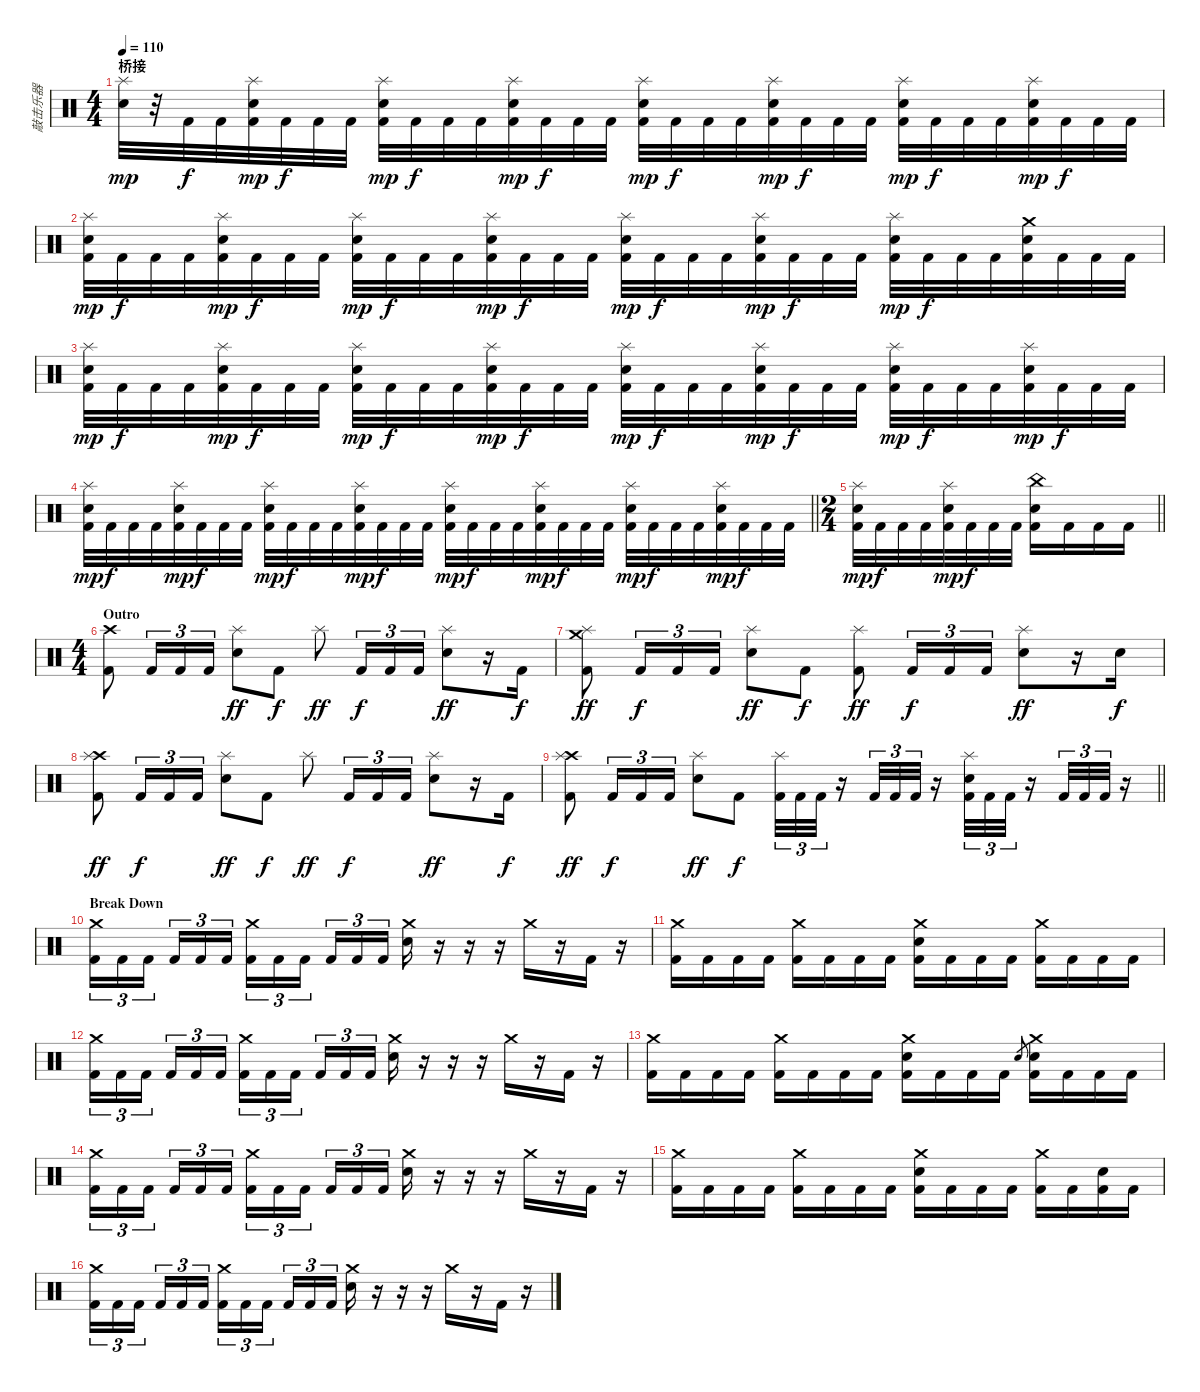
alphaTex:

\track ("敲击乐器" "敲击乐器") {instrument percussion}
\staff {score}
\articulation defaults
\ts (4 4)
\section ("" "桥接")
\tempo 110
\clef neutral
\ks c
("Splash (hit)" "Snare (hit) 2").32{dy mp} r.32 "Kick (hit) 2".32{dy f} "Kick (hit) 2".32 ("Splash (hit)" "Snare (hit) 2" "Kick (hit) 2").32{dy mp} "Kick (hit) 2".32{dy f} "Kick (hit) 2".32 "Kick (hit) 2".32 ("Splash (hit)" "Snare (hit) 2" "Kick (hit) 2").32{dy mp} "Kick (hit) 2".32{dy f} "Kick (hit) 2".32 "Kick (hit) 2".32 ("Splash (hit)" "Snare (hit) 2" "Kick (hit) 2").32{dy mp} "Kick (hit) 2".32{dy f} "Kick (hit) 2".32 "Kick (hit) 2".32 ("Splash (hit)" "Snare (hit) 2" "Kick (hit) 2").32{dy mp} "Kick (hit) 2".32{dy f} "Kick (hit) 2".32 "Kick (hit) 2".32 ("Splash (hit)" "Snare (hit) 2" "Kick (hit) 2").32{dy mp} "Kick (hit) 2".32{dy f} "Kick (hit) 2".32 "Kick (hit) 2".32 ("Splash (hit)" "Snare (hit) 2" "Kick (hit) 2").32{dy mp} "Kick (hit) 2".32{dy f} "Kick (hit) 2".32 "Kick (hit) 2".32 ("Splash (hit)" "Snare (hit) 2" "Kick (hit) 2").32{dy mp} "Kick (hit) 2".32{dy f} "Kick (hit) 2".32 "Kick (hit) 2".32 |
("Splash (hit)" "Snare (hit) 2" "Kick (hit) 2").32{dy mp} "Kick (hit) 2".32{dy f} "Kick (hit) 2".32 "Kick (hit) 2".32 ("Splash (hit)" "Snare (hit) 2" "Kick (hit) 2").32{dy mp} "Kick (hit) 2".32{dy f} "Kick (hit) 2".32 "Kick (hit) 2".32 ("Splash (hit)" "Snare (hit) 2" "Kick (hit) 2").32{dy mp} "Kick (hit) 2".32{dy f} "Kick (hit) 2".32 "Kick (hit) 2".32 ("Splash (hit)" "Snare (hit) 2" "Kick (hit) 2").32{dy mp} "Kick (hit) 2".32{dy f} "Kick (hit) 2".32 "Kick (hit) 2".32 ("Splash (hit)" "Snare (hit) 2" "Kick (hit) 2").32{dy mp} "Kick (hit) 2".32{dy f} "Kick (hit) 2".32 "Kick (hit) 2".32 ("Splash (hit)" "Snare (hit) 2" "Kick (hit) 2").32{dy mp} "Kick (hit) 2".32{dy f} "Kick (hit) 2".32 "Kick (hit) 2".32 ("Splash (hit)" "Snare (hit) 2" "Kick (hit) 2").32{dy mp} "Kick (hit) 2".32{dy f} "Kick (hit) 2".32 "Kick (hit) 2".32 ("Crash medium (hit)" "Snare (hit) 2" "Kick (hit) 2").32 "Kick (hit) 2".32 "Kick (hit) 2".32 "Kick (hit) 2".32 |
("Splash (hit)" "Snare (hit) 2" "Kick (hit) 2").32{dy mp} "Kick (hit) 2".32{dy f} "Kick (hit) 2".32 "Kick (hit) 2".32 ("Splash (hit)" "Snare (hit) 2" "Kick (hit) 2").32{dy mp} "Kick (hit) 2".32{dy f} "Kick (hit) 2".32 "Kick (hit) 2".32 ("Splash (hit)" "Snare (hit) 2" "Kick (hit) 2").32{dy mp} "Kick (hit) 2".32{dy f} "Kick (hit) 2".32 "Kick (hit) 2".32 ("Splash (hit)" "Snare (hit) 2" "Kick (hit) 2").32{dy mp} "Kick (hit) 2".32{dy f} "Kick (hit) 2".32 "Kick (hit) 2".32 ("Splash (hit)" "Snare (hit) 2" "Kick (hit) 2").32{dy mp} "Kick (hit) 2".32{dy f} "Kick (hit) 2".32 "Kick (hit) 2".32 ("Splash (hit)" "Snare (hit) 2" "Kick (hit) 2").32{dy mp} "Kick (hit) 2".32{dy f} "Kick (hit) 2".32 "Kick (hit) 2".32 ("Splash (hit)" "Snare (hit) 2" "Kick (hit) 2").32{dy mp} "Kick (hit) 2".32{dy f} "Kick (hit) 2".32 "Kick (hit) 2".32 ("Splash (hit)" "Snare (hit) 2" "Kick (hit) 2").32{dy mp} "Kick (hit) 2".32{dy f} "Kick (hit) 2".32 "Kick (hit) 2".32 |
\barLineRight lightlight
("Splash (hit)" "Snare (hit) 2" "Kick (hit) 2").32{dy mp} "Kick (hit) 2".32{dy f} "Kick (hit) 2".32 "Kick (hit) 2".32 ("Splash (hit)" "Snare (hit) 2" "Kick (hit) 2").32{dy mp} "Kick (hit) 2".32{dy f} "Kick (hit) 2".32 "Kick (hit) 2".32 ("Splash (hit)" "Snare (hit) 2" "Kick (hit) 2").32{dy mp} "Kick (hit) 2".32{dy f} "Kick (hit) 2".32 "Kick (hit) 2".32 ("Splash (hit)" "Snare (hit) 2" "Kick (hit) 2").32{dy mp} "Kick (hit) 2".32{dy f} "Kick (hit) 2".32 "Kick (hit) 2".32 ("Splash (hit)" "Snare (hit) 2" "Kick (hit) 2").32{dy mp} "Kick (hit) 2".32{dy f} "Kick (hit) 2".32 "Kick (hit) 2".32 ("Splash (hit)" "Snare (hit) 2" "Kick (hit) 2").32{dy mp} "Kick (hit) 2".32{dy f} "Kick (hit) 2".32 "Kick (hit) 2".32 ("Splash (hit)" "Snare (hit) 2" "Kick (hit) 2").32{dy mp} "Kick (hit) 2".32{dy f} "Kick (hit) 2".32 "Kick (hit) 2".32 ("Splash (hit)" "Snare (hit) 2" "Kick (hit) 2").32{dy mp} "Kick (hit) 2".32{dy f} "Kick (hit) 2".32 "Kick (hit) 2".32 |
\ts (2 4)
\barLineRight lightlight
("Splash (hit)" "Snare (hit) 2" "Kick (hit) 2").32{dy mp} "Kick (hit) 2".32{dy f} "Kick (hit) 2".32 "Kick (hit) 2".32 ("Splash (hit)" "Snare (hit) 2" "Kick (hit) 2").32{dy mp} "Kick (hit) 2".32{dy f} "Kick (hit) 2".32 "Kick (hit) 2".32 ("China (hit)" "Snare (hit) 2" "Kick (hit) 2").16 "Kick (hit) 2".16 "Kick (hit) 2".16 "Kick (hit) 2".16 |
\ts (4 4)
\section ("" "Outro")
("Crash high (hit)" "Kick (hit) 2").8 "Kick (hit) 2".16{tu (3 2)} "Kick (hit) 2".16{tu (3 2)} "Kick (hit) 2".16{tu (3 2)} ("Splash (hit)" "Snare (hit) 2").8{dy ff} "Kick (hit) 2".8{dy f} "Splash (hit)".8{dy ff} "Kick (hit) 2".16{tu (3 2) dy f} "Kick (hit) 2".16{tu (3 2)} "Kick (hit) 2".16{tu (3 2)} ("Splash (hit)" "Snare (hit) 2").8{dy ff} r.16 "Kick (hit) 2".16{dy f} |
("Crash medium (hit)" "Splash (hit)" "Kick (hit) 2").8{dy ff} "Kick (hit) 2".16{tu (3 2) dy f} "Kick (hit) 2".16{tu (3 2)} "Kick (hit) 2".16{tu (3 2)} ("Splash (hit)" "Snare (hit) 2").8{dy ff} "Kick (hit) 2".8{dy f} ("Splash (hit)" "Kick (hit) 2").8{dy ff} "Kick (hit) 2".16{tu (3 2) dy f} "Kick (hit) 2".16{tu (3 2)} "Kick (hit) 2".16{tu (3 2)} ("Splash (hit)" "Snare (hit) 2").8{dy ff} r.16 "Snare (hit) 2".16{dy f} |
("Crash high (hit)" "Splash (hit)" "Kick (hit) 2").8{dy ff} "Kick (hit) 2".16{tu (3 2) dy f} "Kick (hit) 2".16{tu (3 2)} "Kick (hit) 2".16{tu (3 2)} ("Splash (hit)" "Snare (hit) 2").8{dy ff} "Kick (hit) 2".8{dy f} "Splash (hit)".8{dy ff} "Kick (hit) 2".16{tu (3 2) dy f} "Kick (hit) 2".16{tu (3 2)} "Kick (hit) 2".16{tu (3 2)} ("Splash (hit)" "Snare (hit) 2").8{dy ff} r.16 "Kick (hit) 2".16{dy f} |
\barLineRight lightlight
("Crash high (hit)" "Splash (hit)" "Kick (hit) 2").8{dy ff} "Kick (hit) 2".16{tu (3 2) dy f} "Kick (hit) 2".16{tu (3 2)} "Kick (hit) 2".16{tu (3 2)} ("Splash (hit)" "Snare (hit) 2").8{dy ff} "Kick (hit) 2".8{dy f} ("Splash (hit)" "Kick (hit) 2").32{tu (3 2)} "Kick (hit) 2".32{tu (3 2)} "Kick (hit) 2".32{tu (3 2)} r.16 "Kick (hit) 2".32{tu (3 2)} "Kick (hit) 2".32{tu (3 2)} "Kick (hit) 2".32{tu (3 2)} r.16 ("Splash (hit)" "Snare (hit) 2" "Kick (hit) 2").32{tu (3 2)} "Kick (hit) 2".32{tu (3 2)} "Kick (hit) 2".32{tu (3 2)} r.16 "Kick (hit) 2".32{tu (3 2)} "Kick (hit) 2".32{tu (3 2)} "Kick (hit) 2".32{tu (3 2)} r.16 |
\section ("" "Break Down")
("Crash medium (hit)" "Kick (hit) 2").16{tu (3 2)} "Kick (hit) 2".16{tu (3 2)} "Kick (hit) 2".16{tu (3 2) beam splitsecondary} "Kick (hit) 2".16{tu (3 2)} "Kick (hit) 2".16{tu (3 2)} "Kick (hit) 2".16{tu (3 2)} ("Crash medium (hit)" "Kick (hit) 2").16{tu (3 2)} "Kick (hit) 2".16{tu (3 2)} "Kick (hit) 2".16{tu (3 2) beam splitsecondary} "Kick (hit) 2".16{tu (3 2)} "Kick (hit) 2".16{tu (3 2)} "Kick (hit) 2".16{tu (3 2)} ("Crash medium (hit)" "Snare (hit) 2").16 r.16 r.16 r.16 "Crash medium (hit)".16 r.16 "Kick (hit) 2".16 r.16 |
("Crash medium (hit)" "Kick (hit) 2").16 "Kick (hit) 2".16 "Kick (hit) 2".16 "Kick (hit) 2".16 ("Crash medium (hit)" "Kick (hit) 2").16 "Kick (hit) 2".16 "Kick (hit) 2".16 "Kick (hit) 2".16 ("Crash medium (hit)" "Snare (hit) 2" "Kick (hit) 2").16 "Kick (hit) 2".16 "Kick (hit) 2".16 "Kick (hit) 2".16 ("Crash medium (hit)" "Kick (hit) 2").16 "Kick (hit) 2".16 "Kick (hit) 2".16 "Kick (hit) 2".16 |
("Crash medium (hit)" "Kick (hit) 2").16{tu (3 2)} "Kick (hit) 2".16{tu (3 2)} "Kick (hit) 2".16{tu (3 2) beam splitsecondary} "Kick (hit) 2".16{tu (3 2)} "Kick (hit) 2".16{tu (3 2)} "Kick (hit) 2".16{tu (3 2)} ("Crash medium (hit)" "Kick (hit) 2").16{tu (3 2)} "Kick (hit) 2".16{tu (3 2)} "Kick (hit) 2".16{tu (3 2) beam splitsecondary} "Kick (hit) 2".16{tu (3 2)} "Kick (hit) 2".16{tu (3 2)} "Kick (hit) 2".16{tu (3 2)} ("Crash medium (hit)" "Snare (hit) 2").16 r.16 r.16 r.16 "Crash medium (hit)".16 r.16 "Kick (hit) 2".16 r.16 |
("Crash medium (hit)" "Kick (hit) 2").16 "Kick (hit) 2".16 "Kick (hit) 2".16 "Kick (hit) 2".16 ("Crash medium (hit)" "Kick (hit) 2").16 "Kick (hit) 2".16 "Kick (hit) 2".16 "Kick (hit) 2".16 ("Crash medium (hit)" "Snare (hit) 2" "Kick (hit) 2").16 "Kick (hit) 2".16 "Kick (hit) 2".16 "Kick (hit) 2".16 "Snare (hit) 2".8{gr} ("Crash medium (hit)" "Snare (hit) 2" "Kick (hit) 2").16 "Kick (hit) 2".16 "Kick (hit) 2".16 "Kick (hit) 2".16 |
("Crash medium (hit)" "Kick (hit) 2").16{tu (3 2)} "Kick (hit) 2".16{tu (3 2)} "Kick (hit) 2".16{tu (3 2) beam splitsecondary} "Kick (hit) 2".16{tu (3 2)} "Kick (hit) 2".16{tu (3 2)} "Kick (hit) 2".16{tu (3 2)} ("Crash medium (hit)" "Kick (hit) 2").16{tu (3 2)} "Kick (hit) 2".16{tu (3 2)} "Kick (hit) 2".16{tu (3 2) beam splitsecondary} "Kick (hit) 2".16{tu (3 2)} "Kick (hit) 2".16{tu (3 2)} "Kick (hit) 2".16{tu (3 2)} ("Crash medium (hit)" "Snare (hit) 2").16 r.16 r.16 r.16 "Crash medium (hit)".16 r.16 "Kick (hit) 2".16 r.16 |
("Crash medium (hit)" "Kick (hit) 2").16 "Kick (hit) 2".16 "Kick (hit) 2".16 "Kick (hit) 2".16 ("Crash medium (hit)" "Kick (hit) 2").16 "Kick (hit) 2".16 "Kick (hit) 2".16 "Kick (hit) 2".16 ("Crash medium (hit)" "Snare (hit) 2" "Kick (hit) 2").16 "Kick (hit) 2".16 "Kick (hit) 2".16 "Kick (hit) 2".16 ("Crash medium (hit)" "Kick (hit) 2").16 "Kick (hit) 2".16 ("Snare (hit) 2" "Kick (hit) 2").16 "Kick (hit) 2".16 |
("Crash medium (hit)" "Kick (hit) 2").16{tu (3 2)} "Kick (hit) 2".16{tu (3 2)} "Kick (hit) 2".16{tu (3 2) beam splitsecondary} "Kick (hit) 2".16{tu (3 2)} "Kick (hit) 2".16{tu (3 2)} "Kick (hit) 2".16{tu (3 2)} ("Crash medium (hit)" "Kick (hit) 2").16{tu (3 2)} "Kick (hit) 2".16{tu (3 2)} "Kick (hit) 2".16{tu (3 2) beam splitsecondary} "Kick (hit) 2".16{tu (3 2)} "Kick (hit) 2".16{tu (3 2)} "Kick (hit) 2".16{tu (3 2)} ("Crash medium (hit)" "Snare (hit) 2").16 r.16 r.16 r.16 "Crash medium (hit)".16 r.16 "Kick (hit) 2".16 r.16
